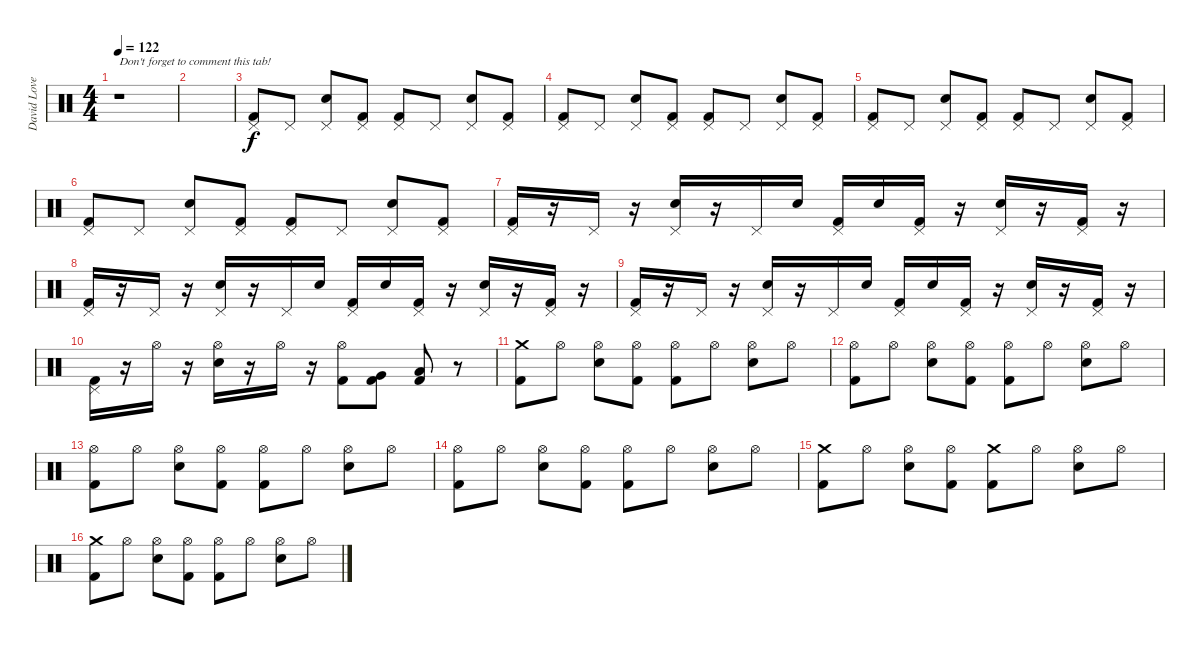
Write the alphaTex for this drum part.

\track ("David Lovering" "David Love") {instrument percussion}
\staff {score}
\articulation defaults
\ts (4 4)
\tempo 122
\clef neutral
\ks c
r.1{txt "Don't forget to comment this tab!" dy f} |
|
("Pedal Hi-Hat (hit)" "Kick (hit) 2").8 "Pedal Hi-Hat (hit)".8 ("Pedal Hi-Hat (hit)" "Electric Snare (hit)").8 ("Pedal Hi-Hat (hit)" "Kick (hit) 2").8 ("Pedal Hi-Hat (hit)" "Kick (hit) 2").8 "Pedal Hi-Hat (hit)".8 ("Pedal Hi-Hat (hit)" "Electric Snare (hit)").8 ("Pedal Hi-Hat (hit)" "Kick (hit) 2").8 |
("Pedal Hi-Hat (hit)" "Kick (hit) 2").8 "Pedal Hi-Hat (hit)".8 ("Pedal Hi-Hat (hit)" "Electric Snare (hit)").8 ("Pedal Hi-Hat (hit)" "Kick (hit) 2").8 ("Pedal Hi-Hat (hit)" "Kick (hit) 2").8 "Pedal Hi-Hat (hit)".8 ("Pedal Hi-Hat (hit)" "Electric Snare (hit)").8 ("Pedal Hi-Hat (hit)" "Kick (hit) 2").8 |
("Pedal Hi-Hat (hit)" "Kick (hit) 2").8 "Pedal Hi-Hat (hit)".8 ("Pedal Hi-Hat (hit)" "Electric Snare (hit)").8 ("Pedal Hi-Hat (hit)" "Kick (hit) 2").8 ("Pedal Hi-Hat (hit)" "Kick (hit) 2").8 "Pedal Hi-Hat (hit)".8 ("Pedal Hi-Hat (hit)" "Electric Snare (hit)").8 ("Pedal Hi-Hat (hit)" "Kick (hit) 2").8 |
("Pedal Hi-Hat (hit)" "Kick (hit) 2").8 "Pedal Hi-Hat (hit)".8 ("Pedal Hi-Hat (hit)" "Electric Snare (hit)").8 ("Pedal Hi-Hat (hit)" "Kick (hit) 2").8 ("Pedal Hi-Hat (hit)" "Kick (hit) 2").8 "Pedal Hi-Hat (hit)".8 ("Pedal Hi-Hat (hit)" "Electric Snare (hit)").8 ("Pedal Hi-Hat (hit)" "Kick (hit) 2").8 |
("Pedal Hi-Hat (hit)" "Kick (hit) 2").16 r.16 "Pedal Hi-Hat (hit)".16 r.16 ("Pedal Hi-Hat (hit)" "Electric Snare (hit)").16 r.16 "Pedal Hi-Hat (hit)".16 "Electric Snare (hit)".16 ("Pedal Hi-Hat (hit)" "Kick (hit) 2").16 "Electric Snare (hit)".16 ("Pedal Hi-Hat (hit)" "Kick (hit) 2").16 r.16 ("Pedal Hi-Hat (hit)" "Electric Snare (hit)").16 r.16 ("Pedal Hi-Hat (hit)" "Kick (hit) 2").16 r.16 |
("Pedal Hi-Hat (hit)" "Kick (hit) 2").16 r.16 "Pedal Hi-Hat (hit)".16 r.16 ("Pedal Hi-Hat (hit)" "Electric Snare (hit)").16 r.16 "Pedal Hi-Hat (hit)".16 "Electric Snare (hit)".16 ("Pedal Hi-Hat (hit)" "Kick (hit) 2").16 "Electric Snare (hit)".16 ("Pedal Hi-Hat (hit)" "Kick (hit) 2").16 r.16 ("Pedal Hi-Hat (hit)" "Electric Snare (hit)").16 r.16 ("Pedal Hi-Hat (hit)" "Kick (hit) 2").16 r.16 |
("Pedal Hi-Hat (hit)" "Kick (hit) 2").16 r.16 "Pedal Hi-Hat (hit)".16 r.16 ("Pedal Hi-Hat (hit)" "Electric Snare (hit)").16 r.16 "Pedal Hi-Hat (hit)".16 "Electric Snare (hit)".16 ("Pedal Hi-Hat (hit)" "Kick (hit) 2").16 "Electric Snare (hit)".16 ("Pedal Hi-Hat (hit)" "Kick (hit) 2").16 r.16 ("Pedal Hi-Hat (hit)" "Electric Snare (hit)").16 r.16 ("Pedal Hi-Hat (hit)" "Kick (hit) 2").16 r.16 |
("Pedal Hi-Hat (hit)" "Kick (hit) 2").16 r.16 "Hi-Hat (open)".16 r.16 ("Hi-Hat (open)" "Electric Snare (hit)").16 r.16 "Hi-Hat (open)".16 r.16 ("Hi-Hat (open)" "Kick (hit) 2").8 ("Very Low Tom (hit)" "Kick (hit) 2").8 ("Low Floor Tom (hit)" "Kick (hit) 2").8 r.8 |
("Crash medium (hit)" "Kick (hit) 2").8{volume 15} "Hi-Hat (open)".8 ("Hi-Hat (open)" "Electric Snare (hit)").8 ("Hi-Hat (open)" "Kick (hit) 2").8 ("Hi-Hat (open)" "Kick (hit) 2").8 "Hi-Hat (open)".8 ("Hi-Hat (open)" "Electric Snare (hit)").8 "Hi-Hat (open)".8 |
("Hi-Hat (open)" "Kick (hit) 2").8 "Hi-Hat (open)".8 ("Hi-Hat (open)" "Electric Snare (hit)").8 ("Hi-Hat (open)" "Kick (hit) 2").8 ("Hi-Hat (open)" "Kick (hit) 2").8 "Hi-Hat (open)".8 ("Hi-Hat (open)" "Electric Snare (hit)").8 "Hi-Hat (open)".8 |
("Hi-Hat (open)" "Kick (hit) 2").8 "Hi-Hat (open)".8 ("Hi-Hat (open)" "Electric Snare (hit)").8 ("Hi-Hat (open)" "Kick (hit) 2").8 ("Hi-Hat (open)" "Kick (hit) 2").8 "Hi-Hat (open)".8 ("Hi-Hat (open)" "Electric Snare (hit)").8 "Hi-Hat (open)".8 |
("Hi-Hat (open)" "Kick (hit) 2").8 "Hi-Hat (open)".8 ("Hi-Hat (open)" "Electric Snare (hit)").8 ("Hi-Hat (open)" "Kick (hit) 2").8 ("Hi-Hat (open)" "Kick (hit) 2").8 "Hi-Hat (open)".8 ("Hi-Hat (open)" "Electric Snare (hit)").8 "Hi-Hat (open)".8 |
("Crash medium (hit)" "Kick (hit) 2").8 "Hi-Hat (open)".8 ("Hi-Hat (open)" "Electric Snare (hit)").8 ("Hi-Hat (open)" "Kick (hit) 2").8 ("Crash medium (hit)" "Kick (hit) 2").8 "Hi-Hat (open)".8 ("Hi-Hat (open)" "Electric Snare (hit)").8 "Hi-Hat (open)".8 |
("Crash medium (hit)" "Kick (hit) 2").8 "Hi-Hat (open)".8 ("Hi-Hat (open)" "Electric Snare (hit)").8 ("Hi-Hat (open)" "Kick (hit) 2").8 ("Hi-Hat (open)" "Kick (hit) 2").8 "Hi-Hat (open)".8 ("Hi-Hat (open)" "Electric Snare (hit)").8 "Hi-Hat (open)".8
